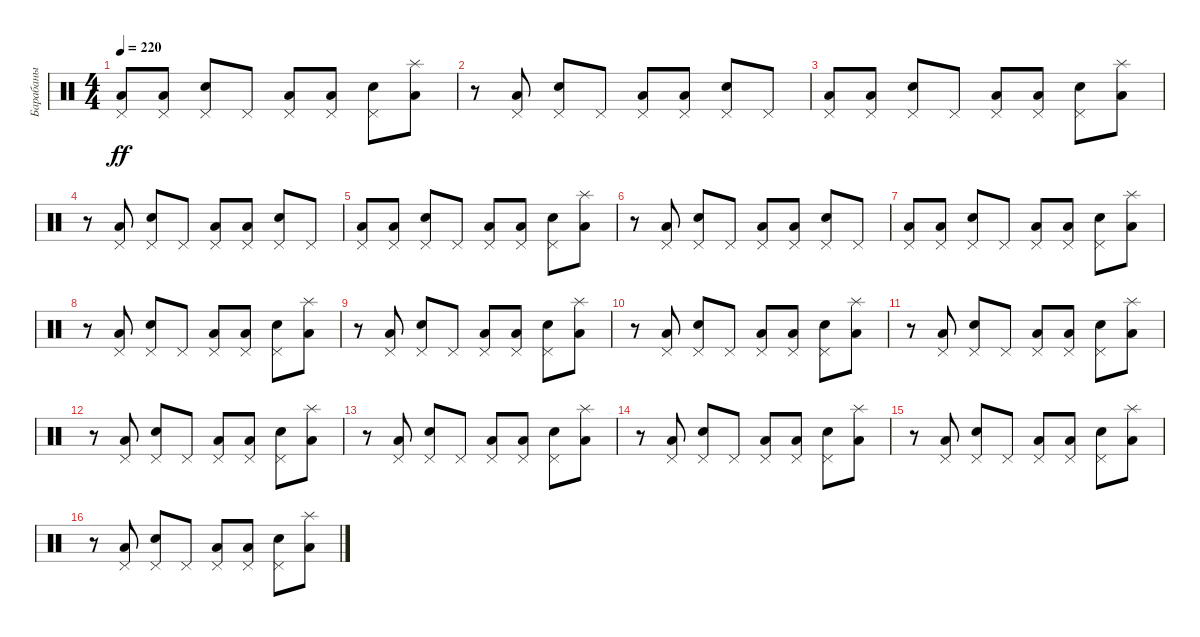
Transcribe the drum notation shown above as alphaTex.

\track ("Барабаны" "Барабаны") {instrument percussion}
\staff {score}
\articulation defaults
\ts (4 4)
\tempo 220
\clef neutral
\ks c
("Low Floor Tom (hit)" "Pedal Hi-Hat (hit)").8{dy ff} ("Low Floor Tom (hit)" "Pedal Hi-Hat (hit)").8 ("Electric Snare (hit)" "Pedal Hi-Hat (hit)").8 "Pedal Hi-Hat (hit)".8 ("Low Floor Tom (hit)" "Pedal Hi-Hat (hit)").8 ("Low Floor Tom (hit)" "Pedal Hi-Hat (hit)").8 ("Electric Snare (hit)" "Pedal Hi-Hat (hit)").8 ("Low Floor Tom (hit)" "Splash (hit)").8 |
r.8 ("Low Floor Tom (hit)" "Pedal Hi-Hat (hit)").8 ("Electric Snare (hit)" "Pedal Hi-Hat (hit)").8 "Pedal Hi-Hat (hit)".8 ("Low Floor Tom (hit)" "Pedal Hi-Hat (hit)").8 ("Low Floor Tom (hit)" "Pedal Hi-Hat (hit)").8 ("Electric Snare (hit)" "Pedal Hi-Hat (hit)").8 "Pedal Hi-Hat (hit)".8 |
("Low Floor Tom (hit)" "Pedal Hi-Hat (hit)").8 ("Low Floor Tom (hit)" "Pedal Hi-Hat (hit)").8 ("Electric Snare (hit)" "Pedal Hi-Hat (hit)").8 "Pedal Hi-Hat (hit)".8 ("Low Floor Tom (hit)" "Pedal Hi-Hat (hit)").8 ("Low Floor Tom (hit)" "Pedal Hi-Hat (hit)").8 ("Electric Snare (hit)" "Pedal Hi-Hat (hit)").8 ("Low Floor Tom (hit)" "Splash (hit)").8 |
r.8 ("Low Floor Tom (hit)" "Pedal Hi-Hat (hit)").8 ("Electric Snare (hit)" "Pedal Hi-Hat (hit)").8 "Pedal Hi-Hat (hit)".8 ("Low Floor Tom (hit)" "Pedal Hi-Hat (hit)").8 ("Low Floor Tom (hit)" "Pedal Hi-Hat (hit)").8 ("Electric Snare (hit)" "Pedal Hi-Hat (hit)").8 "Pedal Hi-Hat (hit)".8 |
("Low Floor Tom (hit)" "Pedal Hi-Hat (hit)").8 ("Low Floor Tom (hit)" "Pedal Hi-Hat (hit)").8 ("Electric Snare (hit)" "Pedal Hi-Hat (hit)").8 "Pedal Hi-Hat (hit)".8 ("Low Floor Tom (hit)" "Pedal Hi-Hat (hit)").8 ("Low Floor Tom (hit)" "Pedal Hi-Hat (hit)").8 ("Electric Snare (hit)" "Pedal Hi-Hat (hit)").8 ("Low Floor Tom (hit)" "Splash (hit)").8 |
r.8 ("Low Floor Tom (hit)" "Pedal Hi-Hat (hit)").8 ("Electric Snare (hit)" "Pedal Hi-Hat (hit)").8 "Pedal Hi-Hat (hit)".8 ("Low Floor Tom (hit)" "Pedal Hi-Hat (hit)").8 ("Low Floor Tom (hit)" "Pedal Hi-Hat (hit)").8 ("Electric Snare (hit)" "Pedal Hi-Hat (hit)").8 "Pedal Hi-Hat (hit)".8 |
("Low Floor Tom (hit)" "Pedal Hi-Hat (hit)").8 ("Low Floor Tom (hit)" "Pedal Hi-Hat (hit)").8 ("Electric Snare (hit)" "Pedal Hi-Hat (hit)").8 "Pedal Hi-Hat (hit)".8 ("Low Floor Tom (hit)" "Pedal Hi-Hat (hit)").8 ("Low Floor Tom (hit)" "Pedal Hi-Hat (hit)").8 ("Electric Snare (hit)" "Pedal Hi-Hat (hit)").8 ("Low Floor Tom (hit)" "Splash (hit)").8 |
r.8 ("Low Floor Tom (hit)" "Pedal Hi-Hat (hit)").8 ("Electric Snare (hit)" "Pedal Hi-Hat (hit)").8 "Pedal Hi-Hat (hit)".8 ("Low Floor Tom (hit)" "Pedal Hi-Hat (hit)").8 ("Low Floor Tom (hit)" "Pedal Hi-Hat (hit)").8 ("Electric Snare (hit)" "Pedal Hi-Hat (hit)").8 ("Low Floor Tom (hit)" "Splash (hit)").8 |
r.8 ("Low Floor Tom (hit)" "Pedal Hi-Hat (hit)").8 ("Electric Snare (hit)" "Pedal Hi-Hat (hit)").8 "Pedal Hi-Hat (hit)".8 ("Low Floor Tom (hit)" "Pedal Hi-Hat (hit)").8 ("Low Floor Tom (hit)" "Pedal Hi-Hat (hit)").8 ("Electric Snare (hit)" "Pedal Hi-Hat (hit)").8 ("Low Floor Tom (hit)" "Splash (hit)").8 |
r.8 ("Low Floor Tom (hit)" "Pedal Hi-Hat (hit)").8 ("Electric Snare (hit)" "Pedal Hi-Hat (hit)").8 "Pedal Hi-Hat (hit)".8 ("Low Floor Tom (hit)" "Pedal Hi-Hat (hit)").8 ("Low Floor Tom (hit)" "Pedal Hi-Hat (hit)").8 ("Electric Snare (hit)" "Pedal Hi-Hat (hit)").8 ("Low Floor Tom (hit)" "Splash (hit)").8 |
r.8 ("Low Floor Tom (hit)" "Pedal Hi-Hat (hit)").8 ("Electric Snare (hit)" "Pedal Hi-Hat (hit)").8 "Pedal Hi-Hat (hit)".8 ("Low Floor Tom (hit)" "Pedal Hi-Hat (hit)").8 ("Low Floor Tom (hit)" "Pedal Hi-Hat (hit)").8 ("Electric Snare (hit)" "Pedal Hi-Hat (hit)").8 ("Low Floor Tom (hit)" "Splash (hit)").8 |
r.8 ("Low Floor Tom (hit)" "Pedal Hi-Hat (hit)").8 ("Electric Snare (hit)" "Pedal Hi-Hat (hit)").8 "Pedal Hi-Hat (hit)".8 ("Low Floor Tom (hit)" "Pedal Hi-Hat (hit)").8 ("Low Floor Tom (hit)" "Pedal Hi-Hat (hit)").8 ("Electric Snare (hit)" "Pedal Hi-Hat (hit)").8 ("Low Floor Tom (hit)" "Splash (hit)").8 |
r.8 ("Low Floor Tom (hit)" "Pedal Hi-Hat (hit)").8 ("Electric Snare (hit)" "Pedal Hi-Hat (hit)").8 "Pedal Hi-Hat (hit)".8 ("Low Floor Tom (hit)" "Pedal Hi-Hat (hit)").8 ("Low Floor Tom (hit)" "Pedal Hi-Hat (hit)").8 ("Electric Snare (hit)" "Pedal Hi-Hat (hit)").8 ("Low Floor Tom (hit)" "Splash (hit)").8 |
r.8 ("Low Floor Tom (hit)" "Pedal Hi-Hat (hit)").8 ("Electric Snare (hit)" "Pedal Hi-Hat (hit)").8 "Pedal Hi-Hat (hit)".8 ("Low Floor Tom (hit)" "Pedal Hi-Hat (hit)").8 ("Low Floor Tom (hit)" "Pedal Hi-Hat (hit)").8 ("Electric Snare (hit)" "Pedal Hi-Hat (hit)").8 ("Low Floor Tom (hit)" "Splash (hit)").8 |
r.8 ("Low Floor Tom (hit)" "Pedal Hi-Hat (hit)").8 ("Electric Snare (hit)" "Pedal Hi-Hat (hit)").8 "Pedal Hi-Hat (hit)".8 ("Low Floor Tom (hit)" "Pedal Hi-Hat (hit)").8 ("Low Floor Tom (hit)" "Pedal Hi-Hat (hit)").8 ("Electric Snare (hit)" "Pedal Hi-Hat (hit)").8 ("Low Floor Tom (hit)" "Splash (hit)").8 |
r.8 ("Low Floor Tom (hit)" "Pedal Hi-Hat (hit)").8 ("Electric Snare (hit)" "Pedal Hi-Hat (hit)").8 "Pedal Hi-Hat (hit)".8 ("Low Floor Tom (hit)" "Pedal Hi-Hat (hit)").8 ("Low Floor Tom (hit)" "Pedal Hi-Hat (hit)").8 ("Electric Snare (hit)" "Pedal Hi-Hat (hit)").8 ("Low Floor Tom (hit)" "Splash (hit)").8
